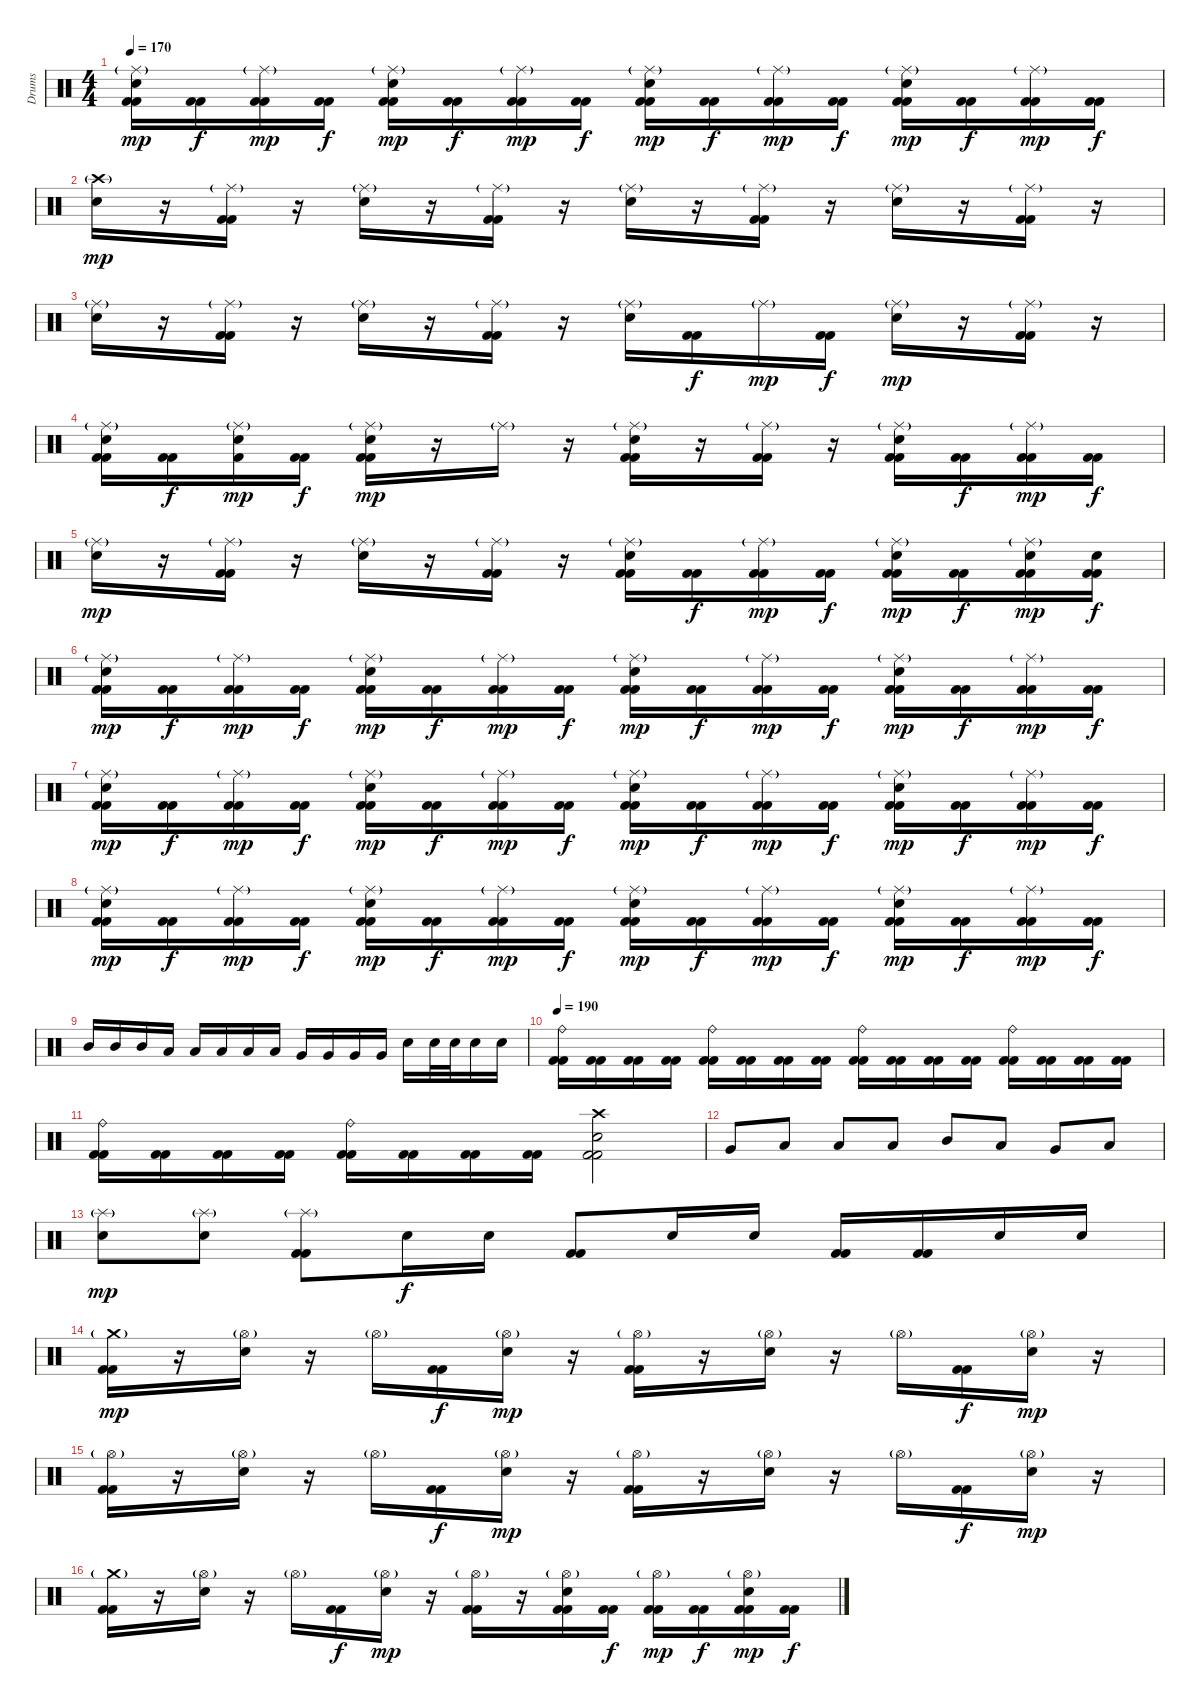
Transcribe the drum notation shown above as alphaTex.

\track ("Drums" "Drums") {instrument percussion}
\staff {score}
\articulation defaults
\ts (4 4)
\tempo 170
\clef neutral
\ks c
("Ride (middle)"{g} "Kick (hit) 2" "Electric Snare (hit)" "Kick (hit) 2").16{dy mp} ("Kick (hit) 2" "Kick (hit) 2").16{dy f} ("Ride (middle)"{g} "Kick (hit) 2" "Kick (hit) 2").16{dy mp} ("Kick (hit) 2" "Kick (hit) 2").16{dy f} ("Ride (middle)"{g} "Kick (hit) 2" "Electric Snare (hit)" "Kick (hit) 2").16{dy mp} ("Kick (hit) 2" "Kick (hit) 2").16{dy f} ("Ride (middle)"{g} "Kick (hit) 2" "Kick (hit) 2").16{dy mp} ("Kick (hit) 2" "Kick (hit) 2").16{dy f} ("Ride (middle)"{g} "Kick (hit) 2" "Electric Snare (hit)" "Kick (hit) 2").16{dy mp} ("Kick (hit) 2" "Kick (hit) 2").16{dy f} ("Ride (middle)"{g} "Kick (hit) 2" "Kick (hit) 2").16{dy mp} ("Kick (hit) 2" "Kick (hit) 2").16{dy f} ("Ride (middle)"{g} "Kick (hit) 2" "Electric Snare (hit)" "Kick (hit) 2").16{dy mp} ("Kick (hit) 2" "Kick (hit) 2").16{dy f} ("Ride (middle)"{g} "Kick (hit) 2" "Kick (hit) 2").16{dy mp} ("Kick (hit) 2" "Kick (hit) 2").16{dy f} |
("Crash high (hit)"{g} "Electric Snare (hit)").16{dy mp} r.16 ("Ride (middle)"{g} "Kick (hit) 2" "Kick (hit) 2").16 r.16 ("Ride (middle)"{g} "Electric Snare (hit)").16 r.16 ("Ride (middle)"{g} "Kick (hit) 2" "Kick (hit) 2").16 r.16 ("Ride (middle)"{g} "Electric Snare (hit)").16 r.16 ("Ride (middle)"{g} "Kick (hit) 2" "Kick (hit) 2").16 r.16 ("Ride (middle)"{g} "Electric Snare (hit)").16 r.16 ("Ride (middle)"{g} "Kick (hit) 2" "Kick (hit) 2").16 r.16 |
("Ride (middle)"{g} "Electric Snare (hit)").16 r.16 ("Ride (middle)"{g} "Kick (hit) 2" "Kick (hit) 2").16 r.16 ("Ride (middle)"{g} "Electric Snare (hit)").16 r.16 ("Ride (middle)"{g} "Kick (hit) 2" "Kick (hit) 2").16 r.16 ("Ride (middle)"{g} "Electric Snare (hit)").16 ("Kick (hit) 2" "Kick (hit) 2").16{dy f} "Ride (middle)"{g}.16{dy mp} ("Kick (hit) 2" "Kick (hit) 2").16{dy f} ("Ride (middle)"{g} "Electric Snare (hit)").16{dy mp} r.16 ("Ride (middle)"{g} "Kick (hit) 2" "Kick (hit) 2").16 r.16 |
("Ride (middle)"{g} "Kick (hit) 2" "Electric Snare (hit)" "Kick (hit) 2").16 ("Kick (hit) 2" "Kick (hit) 2").16{dy f} ("Ride (middle)"{g} "Snare (hit)" "Kick (hit) 2").16{dy mp} ("Kick (hit) 2" "Kick (hit) 2").16{dy f} ("Ride (middle)"{g} "Kick (hit) 2" "Electric Snare (hit)" "Kick (hit) 2").16{dy mp} r.16 "Ride (middle)"{g}.16 r.16 ("Ride (middle)"{g} "Kick (hit) 2" "Electric Snare (hit)" "Kick (hit) 2").16 r.16 ("Ride (middle)"{g} "Kick (hit) 2" "Kick (hit) 2").16 r.16 ("Ride (middle)"{g} "Kick (hit) 2" "Electric Snare (hit)" "Kick (hit) 2").16 ("Kick (hit) 2" "Kick (hit) 2").16{dy f} ("Ride (middle)"{g} "Kick (hit) 2" "Kick (hit) 2").16{dy mp} ("Kick (hit) 2" "Kick (hit) 2").16{dy f} |
("Ride (middle)"{g} "Electric Snare (hit)").16{dy mp} r.16 ("Ride (middle)"{g} "Kick (hit) 2" "Kick (hit) 2").16 r.16 ("Ride (middle)"{g} "Electric Snare (hit)").16 r.16 ("Ride (middle)"{g} "Kick (hit) 2" "Kick (hit) 2").16 r.16 ("Ride (middle)"{g} "Kick (hit) 2" "Electric Snare (hit)" "Kick (hit) 2").16 ("Kick (hit) 2" "Kick (hit) 2").16{dy f} ("Ride (middle)"{g} "Kick (hit) 2" "Kick (hit) 2").16{dy mp} ("Kick (hit) 2" "Kick (hit) 2").16{dy f} ("Ride (middle)"{g} "Kick (hit) 2" "Electric Snare (hit)" "Kick (hit) 2").16{dy mp} ("Kick (hit) 2" "Kick (hit) 2").16{dy f} ("Ride (middle)"{g} "Kick (hit) 2" "Electric Snare (hit)" "Kick (hit) 2").16{dy mp} ("Kick (hit) 2" "Electric Snare (hit)" "Kick (hit) 2").16{dy f} |
("Ride (middle)"{g} "Kick (hit) 2" "Electric Snare (hit)" "Kick (hit) 2").16{dy mp} ("Kick (hit) 2" "Kick (hit) 2").16{dy f} ("Ride (middle)"{g} "Kick (hit) 2" "Kick (hit) 2").16{dy mp} ("Kick (hit) 2" "Kick (hit) 2").16{dy f} ("Ride (middle)"{g} "Kick (hit) 2" "Electric Snare (hit)" "Kick (hit) 2").16{dy mp} ("Kick (hit) 2" "Kick (hit) 2").16{dy f} ("Ride (middle)"{g} "Kick (hit) 2" "Kick (hit) 2").16{dy mp} ("Kick (hit) 2" "Kick (hit) 2").16{dy f} ("Ride (middle)"{g} "Kick (hit) 2" "Electric Snare (hit)" "Kick (hit) 2").16{dy mp} ("Kick (hit) 2" "Kick (hit) 2").16{dy f} ("Ride (middle)"{g} "Kick (hit) 2" "Kick (hit) 2").16{dy mp} ("Kick (hit) 2" "Kick (hit) 2").16{dy f} ("Ride (middle)"{g} "Kick (hit) 2" "Electric Snare (hit)" "Kick (hit) 2").16{dy mp} ("Kick (hit) 2" "Kick (hit) 2").16{dy f} ("Ride (middle)"{g} "Kick (hit) 2" "Kick (hit) 2").16{dy mp} ("Kick (hit) 2" "Kick (hit) 2").16{dy f} |
("Ride (middle)"{g} "Kick (hit) 2" "Electric Snare (hit)" "Kick (hit) 2").16{dy mp} ("Kick (hit) 2" "Kick (hit) 2").16{dy f} ("Ride (middle)"{g} "Kick (hit) 2" "Kick (hit) 2").16{dy mp} ("Kick (hit) 2" "Kick (hit) 2").16{dy f} ("Ride (middle)"{g} "Kick (hit) 2" "Electric Snare (hit)" "Kick (hit) 2").16{dy mp} ("Kick (hit) 2" "Kick (hit) 2").16{dy f} ("Ride (middle)"{g} "Kick (hit) 2" "Kick (hit) 2").16{dy mp} ("Kick (hit) 2" "Kick (hit) 2").16{dy f} ("Ride (middle)"{g} "Kick (hit) 2" "Electric Snare (hit)" "Kick (hit) 2").16{dy mp} ("Kick (hit) 2" "Kick (hit) 2").16{dy f} ("Ride (middle)"{g} "Kick (hit) 2" "Kick (hit) 2").16{dy mp} ("Kick (hit) 2" "Kick (hit) 2").16{dy f} ("Ride (middle)"{g} "Kick (hit) 2" "Electric Snare (hit)" "Kick (hit) 2").16{dy mp} ("Kick (hit) 2" "Kick (hit) 2").16{dy f} ("Ride (middle)"{g} "Kick (hit) 2" "Kick (hit) 2").16{dy mp} ("Kick (hit) 2" "Kick (hit) 2").16{dy f} |
("Ride (middle)"{g} "Kick (hit) 2" "Electric Snare (hit)" "Kick (hit) 2").16{dy mp} ("Kick (hit) 2" "Kick (hit) 2").16{dy f} ("Ride (middle)"{g} "Kick (hit) 2" "Kick (hit) 2").16{dy mp} ("Kick (hit) 2" "Kick (hit) 2").16{dy f} ("Ride (middle)"{g} "Kick (hit) 2" "Electric Snare (hit)" "Kick (hit) 2").16{dy mp} ("Kick (hit) 2" "Kick (hit) 2").16{dy f} ("Ride (middle)"{g} "Kick (hit) 2" "Kick (hit) 2").16{dy mp} ("Kick (hit) 2" "Kick (hit) 2").16{dy f} ("Ride (middle)"{g} "Kick (hit) 2" "Electric Snare (hit)" "Kick (hit) 2").16{dy mp} ("Kick (hit) 2" "Kick (hit) 2").16{dy f} ("Ride (middle)"{g} "Kick (hit) 2" "Kick (hit) 2").16{dy mp} ("Kick (hit) 2" "Kick (hit) 2").16{dy f} ("Ride (middle)"{g} "Kick (hit) 2" "Electric Snare (hit)" "Kick (hit) 2").16{dy mp} ("Kick (hit) 2" "Kick (hit) 2").16{dy f} ("Ride (middle)"{g} "Kick (hit) 2" "Kick (hit) 2").16{dy mp} ("Kick (hit) 2" "Kick (hit) 2").16{dy f} |
"Mid Tom (hit)".16 "Mid Tom (hit)".16 "Mid Tom (hit)".16 "Low Tom (hit)".16 "Low Tom (hit)".16 "Low Tom (hit)".16 "Low Tom (hit)".16 "Low Tom (hit)".16 "Very Low Tom (hit)".16 "Very Low Tom (hit)".16 "Very Low Tom (hit)".16 "Very Low Tom (hit)".16 "Electric Snare (hit)".16 "Electric Snare (hit)".32 "Electric Snare (hit)".32 "Electric Snare (hit)".16 "Electric Snare (hit)".16 |
\tempo 190
("Ride (bell)" "Kick (hit) 2" "Kick (hit) 2").16 ("Kick (hit) 2" "Kick (hit) 2").16 ("Kick (hit) 2" "Kick (hit) 2").16 ("Kick (hit) 2" "Kick (hit) 2").16 ("Ride (bell)" "Kick (hit) 2" "Kick (hit) 2").16 ("Kick (hit) 2" "Kick (hit) 2").16 ("Kick (hit) 2" "Kick (hit) 2").16 ("Kick (hit) 2" "Kick (hit) 2").16 ("Ride (bell)" "Kick (hit) 2" "Kick (hit) 2").16 ("Kick (hit) 2" "Kick (hit) 2").16 ("Kick (hit) 2" "Kick (hit) 2").16 ("Kick (hit) 2" "Kick (hit) 2").16 ("Ride (bell)" "Kick (hit) 2" "Kick (hit) 2").16 ("Kick (hit) 2" "Kick (hit) 2").16 ("Kick (hit) 2" "Kick (hit) 2").16 ("Kick (hit) 2" "Kick (hit) 2").16 |
("Ride (bell)" "Kick (hit) 2" "Kick (hit) 2").16 ("Kick (hit) 2" "Kick (hit) 2").16 ("Kick (hit) 2" "Kick (hit) 2").16 ("Kick (hit) 2" "Kick (hit) 2").16 ("Ride (bell)" "Kick (hit) 2" "Kick (hit) 2").16 ("Kick (hit) 2" "Kick (hit) 2").16 ("Kick (hit) 2" "Kick (hit) 2").16 ("Kick (hit) 2" "Kick (hit) 2").16 ("Crash high (hit)" "Kick (hit) 2" "Electric Snare (hit)" "Kick (hit) 2").2 |
"Very Low Tom (hit)".8 "Low Floor Tom (hit)".8 "Low Tom (hit)".8 "Low Floor Tom (hit)".8 "Mid Tom (hit)".8 "Low Floor Tom (hit)".8 "Very Low Tom (hit)".8 "Low Floor Tom (hit)".8 |
("Splash (hit)"{g} "Electric Snare (hit)").8{dy mp} ("Splash (hit)"{g} "Electric Snare (hit)").8 ("Kick (hit) 2" "Splash (hit)"{g} "Kick (hit) 2").8 "Electric Snare (hit)".16{dy f} "Electric Snare (hit)".16 ("Kick (hit) 2" "Kick (hit) 2").8 "Electric Snare (hit)".16 "Electric Snare (hit)".16 ("Kick (hit) 2" "Kick (hit) 2").16 ("Kick (hit) 2" "Kick (hit) 2").16 "Electric Snare (hit)".16 "Electric Snare (hit)".16 |
("Crash medium (hit)"{g} "Kick (hit) 2" "Kick (hit) 2").16{dy mp} r.16 ("Hi-Hat (open)"{g} "Electric Snare (hit)").16 r.16 "Hi-Hat (open)"{g}.16 ("Kick (hit) 2" "Kick (hit) 2").16{dy f} ("Hi-Hat (open)"{g} "Electric Snare (hit)").16{dy mp} r.16 ("Hi-Hat (open)"{g} "Kick (hit) 2" "Kick (hit) 2").16 r.16 ("Hi-Hat (open)"{g} "Electric Snare (hit)").16 r.16 "Hi-Hat (open)"{g}.16 ("Kick (hit) 2" "Kick (hit) 2").16{dy f} ("Hi-Hat (open)"{g} "Electric Snare (hit)").16{dy mp} r.16 |
("Hi-Hat (open)"{g} "Kick (hit) 2" "Kick (hit) 2").16 r.16 ("Hi-Hat (open)"{g} "Electric Snare (hit)").16 r.16 "Hi-Hat (open)"{g}.16 ("Kick (hit) 2" "Kick (hit) 2").16{dy f} ("Hi-Hat (open)"{g} "Electric Snare (hit)").16{dy mp} r.16 ("Hi-Hat (open)"{g} "Kick (hit) 2" "Kick (hit) 2").16 r.16 ("Hi-Hat (open)"{g} "Electric Snare (hit)").16 r.16 "Hi-Hat (open)"{g}.16 ("Kick (hit) 2" "Kick (hit) 2").16{dy f} ("Hi-Hat (open)"{g} "Electric Snare (hit)").16{dy mp} r.16 |
("Crash medium (hit)"{g} "Kick (hit) 2" "Kick (hit) 2").16 r.16 ("Hi-Hat (open)"{g} "Electric Snare (hit)").16 r.16 "Hi-Hat (open)"{g}.16 ("Kick (hit) 2" "Kick (hit) 2").16{dy f} ("Hi-Hat (open)"{g} "Electric Snare (hit)").16{dy mp} r.16 ("Hi-Hat (open)"{g} "Kick (hit) 2" "Kick (hit) 2").16 r.16 ("Hi-Hat (open)"{g} "Kick (hit) 2" "Electric Snare (hit)" "Kick (hit) 2").16 ("Kick (hit) 2" "Kick (hit) 2").16{dy f} ("Hi-Hat (open)"{g} "Kick (hit) 2" "Kick (hit) 2").16{dy mp} ("Kick (hit) 2" "Kick (hit) 2").16{dy f} ("Hi-Hat (open)"{g} "Kick (hit) 2" "Electric Snare (hit)" "Kick (hit) 2").16{dy mp} ("Kick (hit) 2" "Kick (hit) 2").16{dy f}
